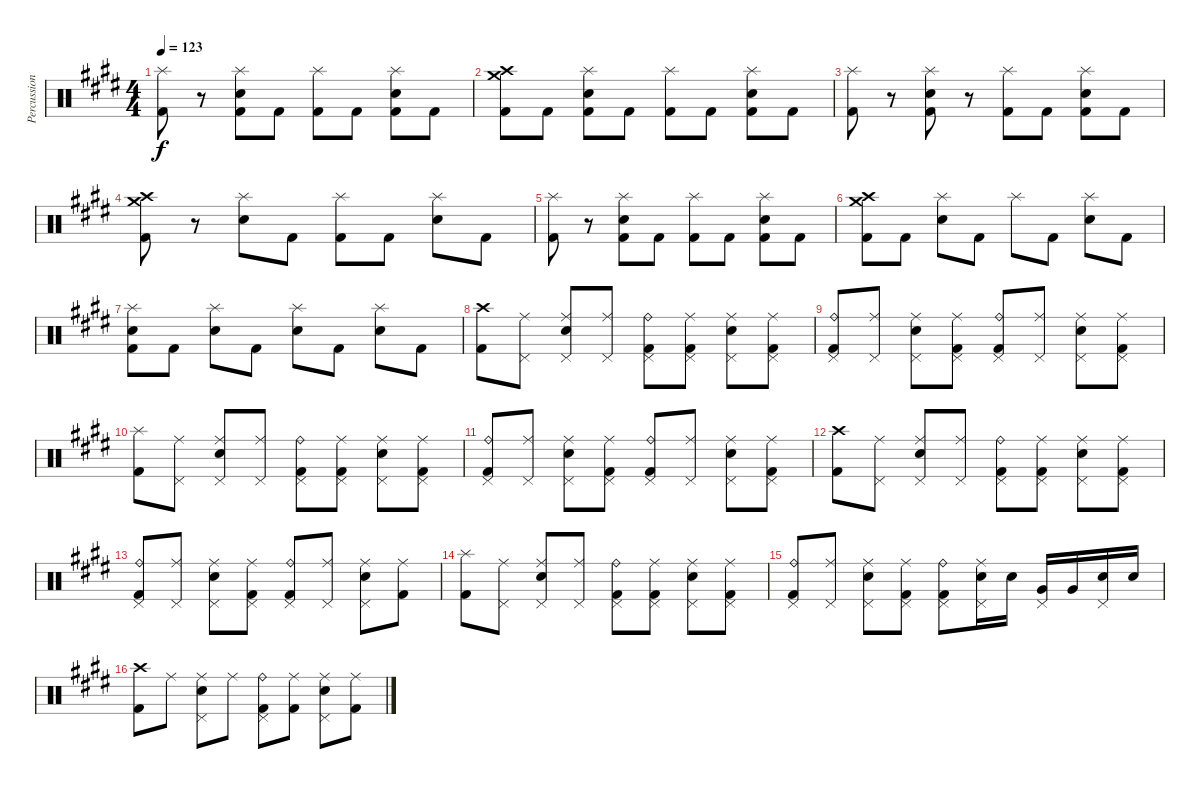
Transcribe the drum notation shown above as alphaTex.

\track ("Percussioni" "Percussion") {instrument percussion}
\staff {score}
\articulation defaults
\ts (4 4)
\tempo 123
\clef neutral
\ks e
("Splash (hit)" "Kick (hit) 2").8{dy f} r.8 ("Splash (hit)" "Electric Snare (hit)" "Kick (hit) 2").8 "Kick (hit) 2".8 ("Splash (hit)" "Kick (hit) 2").8 "Kick (hit) 2".8 ("Splash (hit)" "Electric Snare (hit)" "Kick (hit) 2").8 "Kick (hit) 2".8 |
("Crash high (hit)" "Crash medium (hit)" "Kick (hit) 2").8 "Kick (hit) 2".8 ("Splash (hit)" "Electric Snare (hit)" "Kick (hit) 2").8 "Kick (hit) 2".8 ("Splash (hit)" "Kick (hit) 2").8 "Kick (hit) 2".8 ("Splash (hit)" "Electric Snare (hit)" "Kick (hit) 2").8 "Kick (hit) 2".8 |
("Splash (hit)" "Kick (hit) 2").8 r.8 ("Splash (hit)" "Electric Snare (hit)" "Kick (hit) 2").8 r.8 ("Splash (hit)" "Kick (hit) 2").8 "Kick (hit) 2".8 ("Splash (hit)" "Electric Snare (hit)" "Kick (hit) 2").8 "Kick (hit) 2".8 |
("Crash high (hit)" "Crash medium (hit)" "Kick (hit) 2").8 r.8 ("Splash (hit)" "Electric Snare (hit)").8 "Kick (hit) 2".8 ("Splash (hit)" "Kick (hit) 2").8 "Kick (hit) 2".8 ("Splash (hit)" "Electric Snare (hit)").8 "Kick (hit) 2".8 |
("Splash (hit)" "Kick (hit) 2").8 r.8 ("Splash (hit)" "Electric Snare (hit)" "Kick (hit) 2").8 "Kick (hit) 2".8 ("Splash (hit)" "Kick (hit) 2").8 "Kick (hit) 2".8 ("Splash (hit)" "Electric Snare (hit)" "Kick (hit) 2").8 "Kick (hit) 2".8 |
("Crash high (hit)" "Crash medium (hit)" "Kick (hit) 2").8 "Kick (hit) 2".8 ("Splash (hit)" "Electric Snare (hit)").8 "Kick (hit) 2".8 "Splash (hit)".8 "Kick (hit) 2".8 ("Splash (hit)" "Electric Snare (hit)").8 "Kick (hit) 2".8 |
("Splash (hit)" "Electric Snare (hit)" "Kick (hit) 2").8 "Kick (hit) 2".8 ("Splash (hit)" "Electric Snare (hit)").8 "Kick (hit) 2".8 ("Splash (hit)" "Electric Snare (hit)").8 "Kick (hit) 2".8 ("Splash (hit)" "Electric Snare (hit)").8 "Kick (hit) 2".8 |
("Crash high (hit)" "Kick (hit) 2").8 ("Pedal Hi-Hat (hit)" "Ride (middle)").8 ("Pedal Hi-Hat (hit)" "Ride (middle)" "Electric Snare (hit)").8 ("Pedal Hi-Hat (hit)" "Ride (middle)").8 ("Pedal Hi-Hat (hit)" "Ride (bell)" "Kick (hit) 2").8 ("Pedal Hi-Hat (hit)" "Ride (middle)" "Kick (hit) 2").8 ("Pedal Hi-Hat (hit)" "Ride (middle)" "Electric Snare (hit)").8 ("Pedal Hi-Hat (hit)" "Ride (middle)" "Kick (hit) 2").8 |
("Pedal Hi-Hat (hit)" "Ride (bell)" "Kick (hit) 2").8 ("Pedal Hi-Hat (hit)" "Ride (middle)").8 ("Pedal Hi-Hat (hit)" "Ride (middle)" "Electric Snare (hit)").8 ("Pedal Hi-Hat (hit)" "Ride (middle)" "Kick (hit) 2").8 ("Pedal Hi-Hat (hit)" "Ride (bell)" "Kick (hit) 2").8 ("Pedal Hi-Hat (hit)" "Ride (middle)").8 ("Pedal Hi-Hat (hit)" "Ride (middle)" "Electric Snare (hit)").8 ("Pedal Hi-Hat (hit)" "Ride (middle)" "Kick (hit) 2").8 |
("Splash (hit)" "Kick (hit) 2").8 ("Pedal Hi-Hat (hit)" "Ride (middle)").8 ("Pedal Hi-Hat (hit)" "Ride (middle)" "Electric Snare (hit)").8 ("Pedal Hi-Hat (hit)" "Ride (middle)").8 ("Pedal Hi-Hat (hit)" "Ride (bell)" "Kick (hit) 2").8 ("Pedal Hi-Hat (hit)" "Ride (middle)" "Kick (hit) 2").8 ("Pedal Hi-Hat (hit)" "Ride (middle)" "Electric Snare (hit)").8 ("Pedal Hi-Hat (hit)" "Ride (middle)" "Kick (hit) 2").8 |
("Pedal Hi-Hat (hit)" "Ride (bell)" "Kick (hit) 2").8 ("Pedal Hi-Hat (hit)" "Ride (middle)").8 ("Pedal Hi-Hat (hit)" "Ride (middle)" "Electric Snare (hit)").8 ("Pedal Hi-Hat (hit)" "Ride (middle)" "Kick (hit) 2").8 ("Pedal Hi-Hat (hit)" "Ride (bell)" "Kick (hit) 2").8 ("Pedal Hi-Hat (hit)" "Ride (middle)").8 ("Pedal Hi-Hat (hit)" "Ride (middle)" "Electric Snare (hit)").8 ("Pedal Hi-Hat (hit)" "Ride (middle)" "Kick (hit) 2").8 |
("Crash high (hit)" "Kick (hit) 2").8 ("Pedal Hi-Hat (hit)" "Ride (middle)").8 ("Pedal Hi-Hat (hit)" "Ride (middle)" "Electric Snare (hit)").8 ("Pedal Hi-Hat (hit)" "Ride (middle)").8 ("Ride (bell)" "Pedal Hi-Hat (hit)" "Kick (hit) 2").8 ("Pedal Hi-Hat (hit)" "Ride (middle)" "Kick (hit) 2").8 ("Pedal Hi-Hat (hit)" "Ride (middle)" "Electric Snare (hit)").8 ("Pedal Hi-Hat (hit)" "Ride (middle)" "Kick (hit) 2").8 |
("Ride (bell)" "Pedal Hi-Hat (hit)" "Kick (hit) 2").8 ("Pedal Hi-Hat (hit)" "Ride (middle)").8 ("Pedal Hi-Hat (hit)" "Ride (middle)" "Electric Snare (hit)").8 ("Pedal Hi-Hat (hit)" "Ride (middle)" "Kick (hit) 2").8 ("Pedal Hi-Hat (hit)" "Ride (bell)" "Kick (hit) 2").8 ("Pedal Hi-Hat (hit)" "Ride (middle)").8 ("Pedal Hi-Hat (hit)" "Ride (middle)" "Electric Snare (hit)").8 ("Ride (middle)" "Kick (hit) 2").8 |
("Splash (hit)" "Kick (hit) 2").8 ("Pedal Hi-Hat (hit)" "Ride (middle)").8 ("Pedal Hi-Hat (hit)" "Ride (middle)" "Electric Snare (hit)").8 ("Pedal Hi-Hat (hit)" "Ride (middle)").8 ("Pedal Hi-Hat (hit)" "Ride (bell)" "Kick (hit) 2").8 ("Pedal Hi-Hat (hit)" "Ride (middle)" "Kick (hit) 2").8 ("Pedal Hi-Hat (hit)" "Ride (middle)" "Electric Snare (hit)").8 ("Pedal Hi-Hat (hit)" "Ride (middle)" "Kick (hit) 2").8 |
("Pedal Hi-Hat (hit)" "Ride (bell)" "Kick (hit) 2").8 ("Pedal Hi-Hat (hit)" "Ride (middle)").8 ("Pedal Hi-Hat (hit)" "Ride (middle)" "Electric Snare (hit)").8 ("Pedal Hi-Hat (hit)" "Ride (middle)" "Kick (hit) 2").8 ("Pedal Hi-Hat (hit)" "Ride (bell)" "Kick (hit) 2").8 ("Pedal Hi-Hat (hit)" "Ride (middle)" "Electric Snare (hit)").16 "Electric Snare (hit)".16 ("Pedal Hi-Hat (hit)" "Very Low Tom (hit)").16 "Very Low Tom (hit)".16 ("Pedal Hi-Hat (hit)" "Electric Snare (hit)").16 "Electric Snare (hit)".16 |
("Crash high (hit)" "Kick (hit) 2").8 "Ride (middle)".8 ("Pedal Hi-Hat (hit)" "Ride (middle)" "Electric Snare (hit)").8 "Ride (middle)".8 ("Ride (bell)" "Pedal Hi-Hat (hit)" "Kick (hit) 2").8 ("Ride (middle)" "Kick (hit) 2").8 ("Pedal Hi-Hat (hit)" "Ride (middle)" "Electric Snare (hit)").8 ("Ride (middle)" "Kick (hit) 2").8
